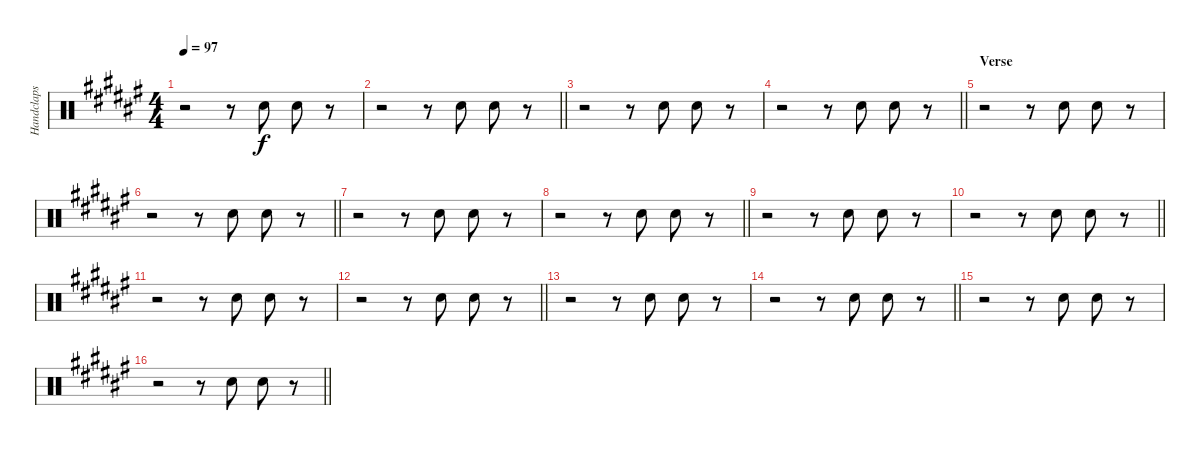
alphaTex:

\track ("Handclaps" "Handclaps") {instrument percussion}
\staff {score}
\articulation defaults
\ts (4 4)
\tempo 97
\clef neutral
\ks f#
r.2{dy f} r.8 "Hand Clap (hit)".8 "Hand Clap (hit)".8 r.8 |
\barLineRight lightlight
r.2 r.8 "Hand Clap (hit)".8 "Hand Clap (hit)".8 r.8 |
r.2 r.8 "Hand Clap (hit)".8 "Hand Clap (hit)".8 r.8 |
\barLineRight lightlight
r.2 r.8 "Hand Clap (hit)".8 "Hand Clap (hit)".8 r.8 |
\section ("" "Verse")
r.2 r.8 "Hand Clap (hit)".8 "Hand Clap (hit)".8 r.8 |
\barLineRight lightlight
r.2 r.8 "Hand Clap (hit)".8 "Hand Clap (hit)".8 r.8 |
r.2 r.8 "Hand Clap (hit)".8 "Hand Clap (hit)".8 r.8 |
\barLineRight lightlight
r.2 r.8 "Hand Clap (hit)".8 "Hand Clap (hit)".8 r.8 |
r.2 r.8 "Hand Clap (hit)".8 "Hand Clap (hit)".8 r.8 |
\barLineRight lightlight
r.2 r.8 "Hand Clap (hit)".8 "Hand Clap (hit)".8 r.8 |
r.2 r.8 "Hand Clap (hit)".8 "Hand Clap (hit)".8 r.8 |
\barLineRight lightlight
r.2 r.8 "Hand Clap (hit)".8 "Hand Clap (hit)".8 r.8 |
r.2 r.8 "Hand Clap (hit)".8 "Hand Clap (hit)".8 r.8 |
\barLineRight lightlight
r.2 r.8 "Hand Clap (hit)".8 "Hand Clap (hit)".8 r.8 |
r.2 r.8 "Hand Clap (hit)".8 "Hand Clap (hit)".8 r.8 |
\barLineRight lightlight
r.2 r.8 "Hand Clap (hit)".8 "Hand Clap (hit)".8 r.8
